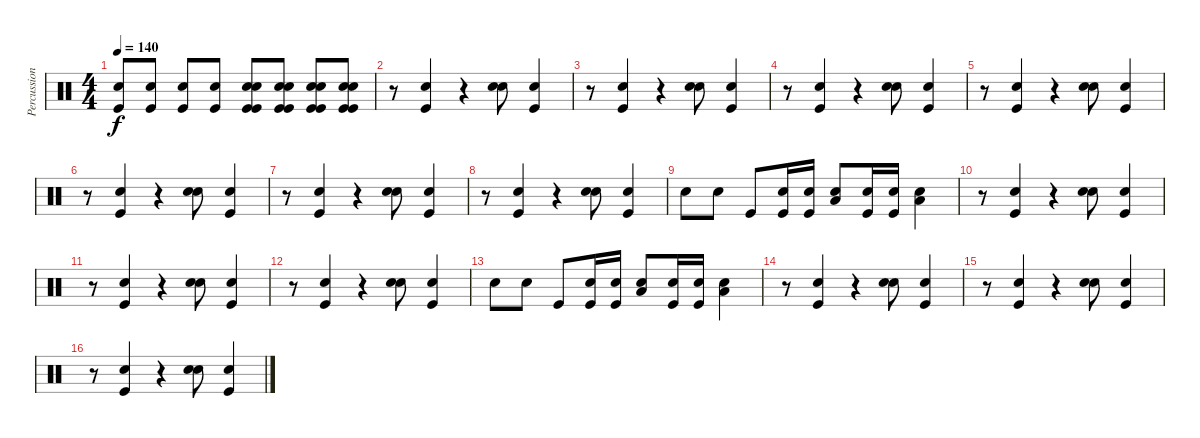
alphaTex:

\track ("Percussions" "Percussion") {instrument percussion}
\staff {score}
\articulation defaults
\ts (4 4)
\tempo 140
\clef neutral
\ks c
("Kick (hit)" "Electric Snare (hit)").8{dy f} ("Kick (hit)" "Electric Snare (hit)").8 ("Kick (hit)" "Electric Snare (hit)").8 ("Kick (hit)" "Electric Snare (hit)").8 ("Kick (hit)" "Electric Snare (hit)" "Kick (hit)" "Electric Snare (hit)").8 ("Kick (hit)" "Electric Snare (hit)" "Kick (hit)" "Electric Snare (hit)").8 ("Kick (hit)" "Electric Snare (hit)" "Kick (hit)" "Electric Snare (hit)").8 ("Kick (hit)" "Electric Snare (hit)" "Kick (hit)" "Electric Snare (hit)").8 |
r.8 ("Kick (hit)" "Electric Snare (hit)").4 r.4 ("Snare (hit) 2" "Electric Snare (hit)").8 ("Kick (hit)" "Electric Snare (hit)").4 |
r.8 ("Kick (hit)" "Electric Snare (hit)").4 r.4 ("Snare (hit) 2" "Electric Snare (hit)").8 ("Kick (hit)" "Electric Snare (hit)").4 |
r.8 ("Kick (hit)" "Electric Snare (hit)").4 r.4 ("Snare (hit) 2" "Electric Snare (hit)").8 ("Kick (hit)" "Electric Snare (hit)").4 |
r.8 ("Kick (hit)" "Electric Snare (hit)").4 r.4 ("Snare (hit) 2" "Electric Snare (hit)").8 ("Kick (hit)" "Electric Snare (hit)").4 |
r.8 ("Kick (hit)" "Electric Snare (hit)").4 r.4 ("Snare (hit) 2" "Electric Snare (hit)").8 ("Kick (hit)" "Electric Snare (hit)").4 |
r.8 ("Kick (hit)" "Electric Snare (hit)").4 r.4 ("Snare (hit) 2" "Electric Snare (hit)").8 ("Kick (hit)" "Electric Snare (hit)").4 |
r.8 ("Kick (hit)" "Electric Snare (hit)").4 r.4 ("Snare (hit) 2" "Electric Snare (hit)").8 ("Kick (hit)" "Electric Snare (hit)").4 |
"Electric Snare (hit)".8 "Electric Snare (hit)".8 "Kick (hit)".8 ("Electric Snare (hit)" "Kick (hit)").16 ("Electric Snare (hit)" "Kick (hit)").16 ("Electric Snare (hit)" "Low Tom (hit)").8 ("Electric Snare (hit)" "Kick (hit)").16 ("Electric Snare (hit)" "Kick (hit)").16 ("Electric Snare (hit)" "Low Tom (hit)").4 |
r.8 ("Kick (hit)" "Electric Snare (hit)").4 r.4 ("Snare (hit) 2" "Electric Snare (hit)").8 ("Kick (hit)" "Electric Snare (hit)").4 |
r.8 ("Kick (hit)" "Electric Snare (hit)").4 r.4 ("Snare (hit) 2" "Electric Snare (hit)").8 ("Kick (hit)" "Electric Snare (hit)").4 |
r.8 ("Kick (hit)" "Electric Snare (hit)").4 r.4 ("Snare (hit) 2" "Electric Snare (hit)").8 ("Kick (hit)" "Electric Snare (hit)").4 |
"Electric Snare (hit)".8 "Electric Snare (hit)".8 "Kick (hit)".8 ("Electric Snare (hit)" "Kick (hit)").16 ("Electric Snare (hit)" "Kick (hit)").16 ("Electric Snare (hit)" "Low Tom (hit)").8 ("Electric Snare (hit)" "Kick (hit)").16 ("Electric Snare (hit)" "Kick (hit)").16 ("Electric Snare (hit)" "Low Tom (hit)").4 |
r.8 ("Kick (hit)" "Electric Snare (hit)").4 r.4 ("Snare (hit) 2" "Electric Snare (hit)").8 ("Kick (hit)" "Electric Snare (hit)").4 |
r.8 ("Kick (hit)" "Electric Snare (hit)").4 r.4 ("Snare (hit) 2" "Electric Snare (hit)").8 ("Kick (hit)" "Electric Snare (hit)").4 |
r.8 ("Kick (hit)" "Electric Snare (hit)").4 r.4 ("Snare (hit) 2" "Electric Snare (hit)").8 ("Kick (hit)" "Electric Snare (hit)").4
